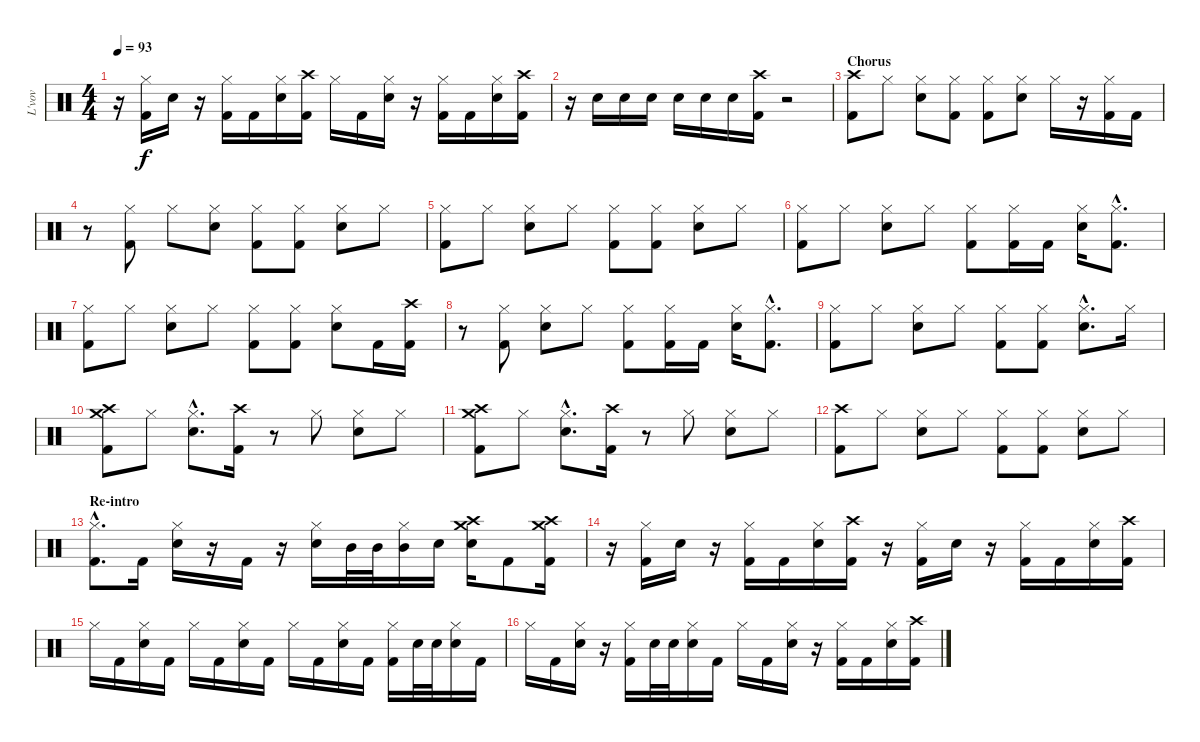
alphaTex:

\track ("L'vov" "L'vov") {instrument percussion}
\staff {score}
\articulation defaults
\ts (4 4)
\tempo 93
\clef neutral
\ks c
r.16{dy f} ("Kick (hit) 2" "Hi-Hat (closed)").16 "Snare (hit) 2".16 r.16 ("Kick (hit) 2" "Hi-Hat (closed)").16 "Kick (hit) 2".16 ("Snare (hit) 2" "Hi-Hat (closed)").16 ("Kick (hit) 2" "Crash high (hit)").16 "Hi-Hat (closed)".16 "Kick (hit) 2".16 ("Snare (hit) 2" "Hi-Hat (closed)").16 r.16 ("Kick (hit) 2" "Hi-Hat (closed)").16 "Kick (hit) 2".16 ("Snare (hit) 2" "Hi-Hat (closed)").16 ("Kick (hit) 2" "Crash high (hit)").16 |
r.16 "Snare (hit) 2".16 "Snare (hit) 2".16 "Snare (hit) 2".16 "Snare (hit) 2".16 "Snare (hit) 2".16 "Snare (hit) 2".16 ("Kick (hit) 2" "Crash high (hit)").16 r.2 |
\section ("" "Chorus")
("Kick (hit) 2" "Crash high (hit)").8 "Hi-Hat (closed)".8 ("Snare (hit) 2" "Hi-Hat (closed)").8 ("Kick (hit) 2" "Hi-Hat (closed)").8 ("Kick (hit) 2" "Hi-Hat (closed)").8 ("Snare (hit) 2" "Hi-Hat (closed)").8 "Hi-Hat (closed)".16 r.16 ("Kick (hit) 2" "Hi-Hat (closed)").16 "Kick (hit) 2".16 |
r.8 ("Kick (hit) 2" "Hi-Hat (closed)").8 "Hi-Hat (closed)".8 ("Snare (hit) 2" "Hi-Hat (closed)").8 ("Kick (hit) 2" "Hi-Hat (closed)").8 ("Kick (hit) 2" "Hi-Hat (closed)").8 ("Snare (hit) 2" "Hi-Hat (closed)").8 "Hi-Hat (closed)".8 |
("Kick (hit) 2" "Hi-Hat (closed)").8 "Hi-Hat (closed)".8 ("Snare (hit) 2" "Hi-Hat (closed)").8 "Hi-Hat (closed)".8 ("Kick (hit) 2" "Hi-Hat (closed)").8 ("Kick (hit) 2" "Hi-Hat (closed)").8 ("Snare (hit) 2" "Hi-Hat (closed)").8 "Hi-Hat (closed)".8 |
("Kick (hit) 2" "Hi-Hat (closed)").8 "Hi-Hat (closed)".8 ("Snare (hit) 2" "Hi-Hat (closed)").8 "Hi-Hat (closed)".8 ("Kick (hit) 2" "Hi-Hat (closed)").8 ("Kick (hit) 2" "Hi-Hat (closed)").16 "Kick (hit) 2".16 ("Snare (hit) 2" "Hi-Hat (closed)").16 ("Kick (hit) 2"{hac} "Hi-Hat (closed)"{hac}).8{d} |
("Kick (hit) 2" "Hi-Hat (closed)").8 "Hi-Hat (closed)".8 ("Snare (hit) 2" "Hi-Hat (closed)").8 "Hi-Hat (closed)".8 ("Kick (hit) 2" "Hi-Hat (closed)").8 ("Kick (hit) 2" "Hi-Hat (closed)").8 ("Snare (hit) 2" "Hi-Hat (closed)").8 "Kick (hit) 2".16 ("Kick (hit) 2" "Crash high (hit)").16 |
r.8 ("Kick (hit) 2" "Hi-Hat (closed)").8 ("Snare (hit) 2" "Hi-Hat (closed)").8 "Hi-Hat (closed)".8 ("Kick (hit) 2" "Hi-Hat (closed)").8 ("Kick (hit) 2" "Hi-Hat (closed)").16 "Kick (hit) 2".16 ("Snare (hit) 2" "Hi-Hat (closed)").16 ("Kick (hit) 2"{hac} "Hi-Hat (closed)"{hac}).8{d} |
("Kick (hit) 2" "Hi-Hat (closed)").8 "Hi-Hat (closed)".8 ("Snare (hit) 2" "Hi-Hat (closed)").8 "Hi-Hat (closed)".8 ("Kick (hit) 2" "Hi-Hat (closed)").8 ("Kick (hit) 2" "Hi-Hat (closed)").8 ("Snare (hit) 2"{hac} "Hi-Hat (closed)"{hac}).8{d} "Hi-Hat (closed)".16 |
("Kick (hit) 2" "Crash high (hit)" "Crash medium (hit)").8 "Hi-Hat (closed)".8 ("Snare (hit) 2"{hac} "Hi-Hat (closed)"{hac}).8{d} ("Kick (hit) 2" "Crash high (hit)").16 r.8 "Hi-Hat (closed)".8 ("Snare (hit) 2" "Hi-Hat (closed)").8 "Hi-Hat (closed)".8 |
("Kick (hit) 2" "Crash high (hit)" "Crash medium (hit)").8 "Hi-Hat (closed)".8 ("Snare (hit) 2"{hac} "Hi-Hat (closed)"{hac}).8{d} ("Kick (hit) 2" "Crash high (hit)").16 r.8 "Hi-Hat (closed)".8 ("Snare (hit) 2" "Hi-Hat (closed)").8 "Hi-Hat (closed)".8 |
("Kick (hit) 2" "Crash high (hit)").8 "Hi-Hat (closed)".8 ("Snare (hit) 2" "Hi-Hat (closed)").8 "Hi-Hat (closed)".8 ("Kick (hit) 2" "Hi-Hat (closed)").8 ("Kick (hit) 2" "Hi-Hat (closed)").8 ("Snare (hit) 2" "Hi-Hat (closed)").8 "Hi-Hat (closed)".8 |
\section ("" "Re-intro")
("Kick (hit) 2"{hac} "Hi-Hat (closed)"{hac}).8{d} "Kick (hit) 2".16 ("Snare (hit) 2" "Hi-Hat (closed)").16 r.16 "Kick (hit) 2".16 r.16 ("Snare (hit) 2" "Hi-Hat (closed)").16 "Mid Tom (hit)".32 "Mid Tom (hit)".32 ("Mid Tom (hit)" "Hi-Hat (closed)").16 "Snare (hit) 2".16 ("Snare (hit) 2" "Crash high (hit)" "Crash medium (hit)").16 "Kick (hit) 2".8 ("Kick (hit) 2" "Crash high (hit)" "Crash medium (hit)").16 |
r.16 ("Kick (hit) 2" "Hi-Hat (closed)").16 "Snare (hit) 2".16 r.16 ("Kick (hit) 2" "Hi-Hat (closed)").16 "Kick (hit) 2".16 ("Snare (hit) 2" "Hi-Hat (closed)").16 ("Kick (hit) 2" "Crash high (hit)").16 r.16 ("Kick (hit) 2" "Hi-Hat (closed)").16 "Snare (hit) 2".16 r.16 ("Kick (hit) 2" "Hi-Hat (closed)").16 "Kick (hit) 2".16 ("Snare (hit) 2" "Hi-Hat (closed)").16 ("Kick (hit) 2" "Crash high (hit)").16 |
"Hi-Hat (closed)".16 "Kick (hit) 2".16 ("Snare (hit) 2" "Hi-Hat (closed)").16 "Kick (hit) 2".16 "Hi-Hat (closed)".16 "Kick (hit) 2".16 ("Snare (hit) 2" "Hi-Hat (closed)").16 "Kick (hit) 2".16 "Hi-Hat (closed)".16 "Kick (hit) 2".16 ("Snare (hit) 2" "Hi-Hat (closed)").16 "Kick (hit) 2".16 ("Kick (hit) 2" "Hi-Hat (closed)").16 "Snare (hit) 2".32 "Snare (hit) 2".32 ("Snare (hit) 2" "Hi-Hat (closed)").16 "Kick (hit) 2".16 |
"Hi-Hat (closed)".16 "Kick (hit) 2".16 ("Snare (hit) 2" "Hi-Hat (closed)").16 r.16 ("Kick (hit) 2" "Hi-Hat (closed)").16 "Snare (hit) 2".32 "Snare (hit) 2".32 ("Snare (hit) 2" "Hi-Hat (closed)").16 "Kick (hit) 2".16 "Hi-Hat (closed)".16 "Kick (hit) 2".16 ("Snare (hit) 2" "Hi-Hat (closed)").16 r.16 ("Kick (hit) 2" "Hi-Hat (closed)").16 "Kick (hit) 2".16 ("Snare (hit) 2" "Hi-Hat (closed)").16 ("Kick (hit) 2" "Crash high (hit)").16
